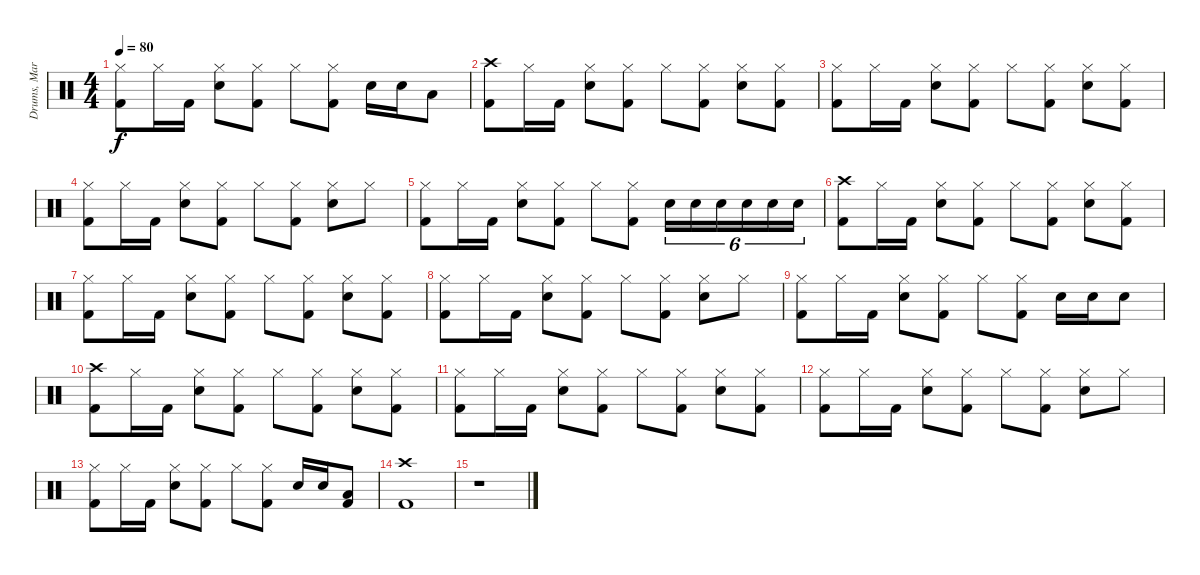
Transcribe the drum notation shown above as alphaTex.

\track ("Drums, Martina" "Drums, Mar") {instrument percussion}
\staff {score}
\articulation defaults
\ts (4 4)
\tempo 80
\clef neutral
\ks c
("Hi-Hat (closed)" "Kick (hit) 2").8{dy f} "Hi-Hat (closed)".16 "Kick (hit) 2".16 ("Hi-Hat (closed)" "Electric Snare (hit)").8 ("Hi-Hat (closed)" "Kick (hit) 2").8 "Hi-Hat (closed)".8 ("Hi-Hat (closed)" "Kick (hit) 2").8 "Electric Snare (hit)".16 "Electric Snare (hit)".16 "Low Tom (hit)".8 |
("Crash high (hit)" "Kick (hit) 2").8 "Hi-Hat (closed)".16 "Kick (hit) 2".16 ("Hi-Hat (closed)" "Electric Snare (hit)").8 ("Hi-Hat (closed)" "Kick (hit) 2").8 "Hi-Hat (closed)".8 ("Hi-Hat (closed)" "Kick (hit) 2").8 ("Hi-Hat (closed)" "Electric Snare (hit)").8 ("Hi-Hat (closed)" "Kick (hit) 2").8 |
("Hi-Hat (closed)" "Kick (hit) 2").8 "Hi-Hat (closed)".16 "Kick (hit) 2".16 ("Hi-Hat (closed)" "Electric Snare (hit)").8 ("Hi-Hat (closed)" "Kick (hit) 2").8 "Hi-Hat (closed)".8 ("Hi-Hat (closed)" "Kick (hit) 2").8 ("Hi-Hat (closed)" "Electric Snare (hit)").8 ("Hi-Hat (closed)" "Kick (hit) 2").8 |
("Hi-Hat (closed)" "Kick (hit) 2").8 "Hi-Hat (closed)".16 "Kick (hit) 2".16 ("Hi-Hat (closed)" "Electric Snare (hit)").8 ("Hi-Hat (closed)" "Kick (hit) 2").8 "Hi-Hat (closed)".8 ("Hi-Hat (closed)" "Kick (hit) 2").8 ("Hi-Hat (closed)" "Electric Snare (hit)").8 "Hi-Hat (closed)".8 |
("Hi-Hat (closed)" "Kick (hit) 2").8 "Hi-Hat (closed)".16 "Kick (hit) 2".16 ("Hi-Hat (closed)" "Electric Snare (hit)").8 ("Hi-Hat (closed)" "Kick (hit) 2").8 "Hi-Hat (closed)".8 ("Hi-Hat (closed)" "Kick (hit) 2").8 "Electric Snare (hit)".16{tu (6 4)} "Electric Snare (hit)".16{tu (6 4)} "Electric Snare (hit)".16{tu (6 4)} "Electric Snare (hit)".16{tu (6 4)} "Electric Snare (hit)".16{tu (6 4)} "Electric Snare (hit)".16{tu (6 4)} |
("Crash high (hit)" "Kick (hit) 2").8 "Hi-Hat (closed)".16 "Kick (hit) 2".16 ("Hi-Hat (closed)" "Electric Snare (hit)").8 ("Hi-Hat (closed)" "Kick (hit) 2").8 "Hi-Hat (closed)".8 ("Hi-Hat (closed)" "Kick (hit) 2").8 ("Hi-Hat (closed)" "Electric Snare (hit)").8 ("Hi-Hat (closed)" "Kick (hit) 2").8 |
("Hi-Hat (closed)" "Kick (hit) 2").8 "Hi-Hat (closed)".16 "Kick (hit) 2".16 ("Hi-Hat (closed)" "Electric Snare (hit)").8 ("Hi-Hat (closed)" "Kick (hit) 2").8 "Hi-Hat (closed)".8 ("Hi-Hat (closed)" "Kick (hit) 2").8 ("Hi-Hat (closed)" "Electric Snare (hit)").8 ("Hi-Hat (closed)" "Kick (hit) 2").8 |
("Hi-Hat (closed)" "Kick (hit) 2").8 "Hi-Hat (closed)".16 "Kick (hit) 2".16 ("Hi-Hat (closed)" "Electric Snare (hit)").8 ("Hi-Hat (closed)" "Kick (hit) 2").8 "Hi-Hat (closed)".8 ("Hi-Hat (closed)" "Kick (hit) 2").8 ("Hi-Hat (closed)" "Electric Snare (hit)").8 "Hi-Hat (closed)".8 |
("Hi-Hat (closed)" "Kick (hit) 2").8 "Hi-Hat (closed)".16 "Kick (hit) 2".16 ("Hi-Hat (closed)" "Electric Snare (hit)").8 ("Hi-Hat (closed)" "Kick (hit) 2").8 "Hi-Hat (closed)".8 ("Hi-Hat (closed)" "Kick (hit) 2").8 "Electric Snare (hit)".16 "Electric Snare (hit)".16 "Electric Snare (hit)".8 |
("Crash high (hit)" "Kick (hit) 2").8 "Hi-Hat (closed)".16 "Kick (hit) 2".16 ("Hi-Hat (closed)" "Electric Snare (hit)").8 ("Hi-Hat (closed)" "Kick (hit) 2").8 "Hi-Hat (closed)".8 ("Hi-Hat (closed)" "Kick (hit) 2").8 ("Hi-Hat (closed)" "Electric Snare (hit)").8 ("Hi-Hat (closed)" "Kick (hit) 2").8 |
("Hi-Hat (closed)" "Kick (hit) 2").8 "Hi-Hat (closed)".16 "Kick (hit) 2".16 ("Hi-Hat (closed)" "Electric Snare (hit)").8 ("Hi-Hat (closed)" "Kick (hit) 2").8 "Hi-Hat (closed)".8 ("Hi-Hat (closed)" "Kick (hit) 2").8 ("Hi-Hat (closed)" "Electric Snare (hit)").8 ("Hi-Hat (closed)" "Kick (hit) 2").8 |
("Hi-Hat (closed)" "Kick (hit) 2").8 "Hi-Hat (closed)".16 "Kick (hit) 2".16 ("Hi-Hat (closed)" "Electric Snare (hit)").8 ("Hi-Hat (closed)" "Kick (hit) 2").8 "Hi-Hat (closed)".8 ("Hi-Hat (closed)" "Kick (hit) 2").8 ("Hi-Hat (closed)" "Electric Snare (hit)").8 "Hi-Hat (closed)".8 |
("Hi-Hat (closed)" "Kick (hit) 2").8 "Hi-Hat (closed)".16 "Kick (hit) 2".16 ("Hi-Hat (closed)" "Electric Snare (hit)").8 ("Hi-Hat (closed)" "Kick (hit) 2").8 "Hi-Hat (closed)".8 ("Hi-Hat (closed)" "Kick (hit) 2").8 "Electric Snare (hit)".16 "Electric Snare (hit)".16 ("Low Tom (hit)" "Kick (hit) 2").8 |
("Crash high (hit)" "Kick (hit) 2").1 |
r.1
